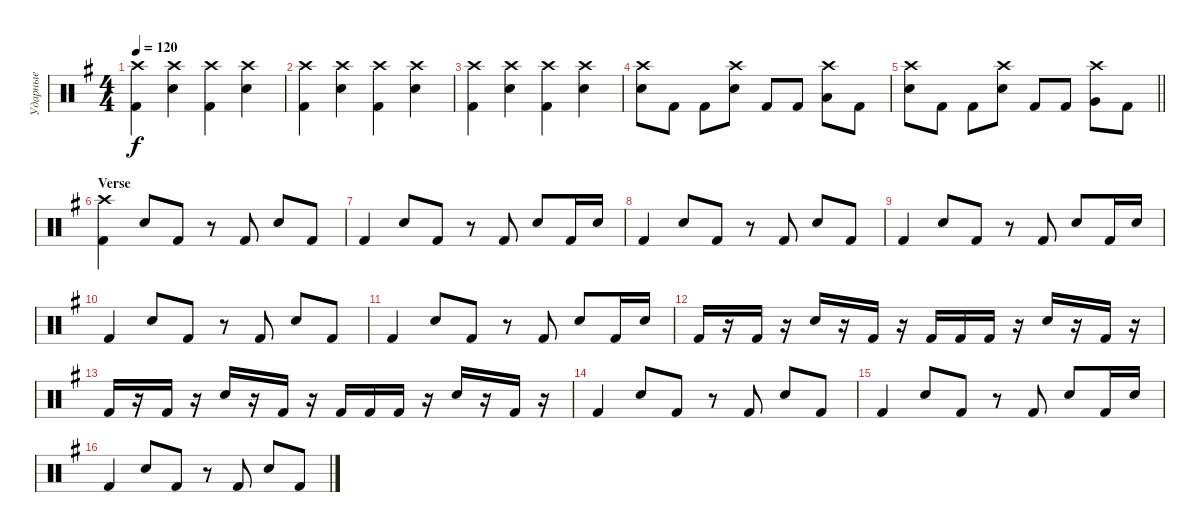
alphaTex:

\track ("Ударные" "Ударные") {instrument percussion}
\staff {score}
\articulation defaults
\ts (4 4)
\tempo 120
\clef neutral
\ks g
("Kick (hit) 2" "Crash high (hit)").4{dy f} ("Snare (hit) 2" "Crash high (hit)").4 ("Kick (hit) 2" "Crash high (hit)").4 ("Snare (hit) 2" "Crash high (hit)").4 |
("Kick (hit) 2" "Crash high (hit)").4 ("Snare (hit) 2" "Crash high (hit)").4 ("Kick (hit) 2" "Crash high (hit)").4 ("Snare (hit) 2" "Crash high (hit)").4 |
("Kick (hit) 2" "Crash high (hit)").4 ("Snare (hit) 2" "Crash high (hit)").4 ("Kick (hit) 2" "Crash high (hit)").4 ("Snare (hit) 2" "Crash high (hit)").4 |
("Snare (hit) 2" "Crash high (hit)").8 "Kick (hit) 2".8 "Kick (hit) 2".8 ("Snare (hit) 2" "Crash high (hit)").8 "Kick (hit) 2".8 "Kick (hit) 2".8 ("Low Tom (hit)" "Crash high (hit)").8 "Kick (hit) 2".8 |
\barLineRight lightlight
("Snare (hit) 2" "Crash high (hit)").8 "Kick (hit) 2".8 "Kick (hit) 2".8 ("Snare (hit) 2" "Crash high (hit)").8 "Kick (hit) 2".8 "Kick (hit) 2".8 ("Very Low Tom (hit)" "Crash high (hit)").8 "Kick (hit) 2".8 |
\section ("" "Verse")
("Kick (hit) 2" "Crash high (hit)").4 "Snare (hit) 2".8 "Kick (hit) 2".8 r.8 "Kick (hit) 2".8 "Snare (hit) 2".8 "Kick (hit) 2".8 |
"Kick (hit) 2".4 "Snare (hit) 2".8 "Kick (hit) 2".8 r.8 "Kick (hit) 2".8 "Snare (hit) 2".8 "Kick (hit) 2".16 "Snare (hit) 2".16 |
"Kick (hit) 2".4 "Snare (hit) 2".8 "Kick (hit) 2".8 r.8 "Kick (hit) 2".8 "Snare (hit) 2".8 "Kick (hit) 2".8 |
"Kick (hit) 2".4 "Snare (hit) 2".8 "Kick (hit) 2".8 r.8 "Kick (hit) 2".8 "Snare (hit) 2".8 "Kick (hit) 2".16 "Snare (hit) 2".16 |
"Kick (hit) 2".4 "Snare (hit) 2".8 "Kick (hit) 2".8 r.8 "Kick (hit) 2".8 "Snare (hit) 2".8 "Kick (hit) 2".8 |
"Kick (hit) 2".4 "Snare (hit) 2".8 "Kick (hit) 2".8 r.8 "Kick (hit) 2".8 "Snare (hit) 2".8 "Kick (hit) 2".16 "Snare (hit) 2".16 |
"Kick (hit) 2".16 r.16 "Kick (hit) 2".16 r.16 "Snare (hit) 2".16 r.16 "Kick (hit) 2".16 r.16 "Kick (hit) 2".16 "Kick (hit) 2".16 "Kick (hit) 2".16 r.16 "Snare (hit) 2".16 r.16 "Kick (hit) 2".16 r.16 |
"Kick (hit) 2".16 r.16 "Kick (hit) 2".16 r.16 "Snare (hit) 2".16 r.16 "Kick (hit) 2".16 r.16 "Kick (hit) 2".16 "Kick (hit) 2".16 "Kick (hit) 2".16 r.16 "Snare (hit) 2".16 r.16 "Kick (hit) 2".16 r.16 |
"Kick (hit) 2".4 "Snare (hit) 2".8 "Kick (hit) 2".8 r.8 "Kick (hit) 2".8 "Snare (hit) 2".8 "Kick (hit) 2".8 |
"Kick (hit) 2".4 "Snare (hit) 2".8 "Kick (hit) 2".8 r.8 "Kick (hit) 2".8 "Snare (hit) 2".8 "Kick (hit) 2".16 "Snare (hit) 2".16 |
"Kick (hit) 2".4 "Snare (hit) 2".8 "Kick (hit) 2".8 r.8 "Kick (hit) 2".8 "Snare (hit) 2".8 "Kick (hit) 2".8
